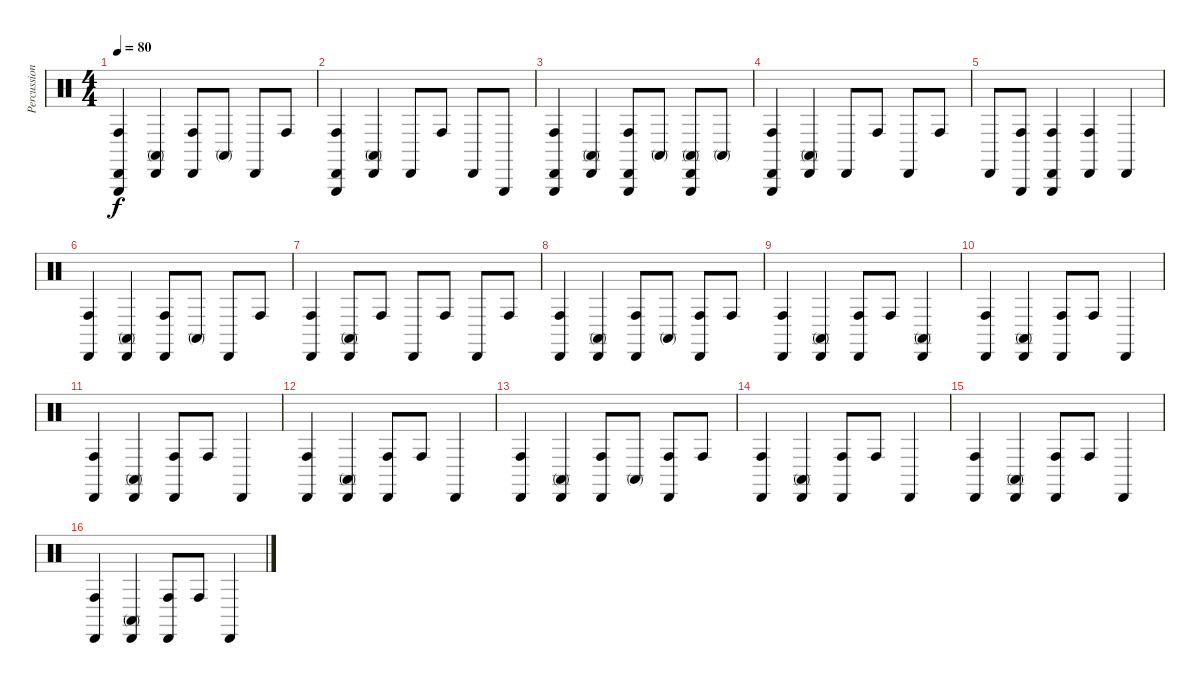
\track ("Percussions" "Percussion") {instrument percussion}
\staff {score}
\articulation defaults
\ts (4 4)
\tempo 80
\clef neutral
\ks c
("Cabasa (hit)" "Triangle (hit)" "Conga high (hit)").4{dy f} ("Cabasa (hit)" "Conga high (mute)").4 ("Cabasa (hit)" "Conga high (hit)").8 "Conga high (mute)".8 "Cabasa (hit)".8 "Conga high (hit)".8 |
("Cabasa (hit)" "Triangle (hit)" "Conga high (hit)").4 ("Cabasa (hit)" "Conga high (mute)").4 "Cabasa (hit)".8 "Conga high (hit)".8 "Cabasa (hit)".8 "Triangle (hit)".8 |
("Cabasa (hit)" "Triangle (hit)" "Conga high (hit)").4 ("Cabasa (hit)" "Conga high (mute)").4 ("Cabasa (hit)" "Triangle (hit)" "Conga high (hit)").8 "Conga high (mute)".8 ("Cabasa (hit)" "Triangle (hit)" "Conga high (mute)").8 "Conga high (mute)".8 |
("Cabasa (hit)" "Triangle (hit)" "Conga high (hit)").4 ("Cabasa (hit)" "Conga high (mute)").4 "Cabasa (hit)".8 "Conga high (hit)".8 "Cabasa (hit)".8 "Conga high (hit)".8 |
"Cabasa (hit)".8 ("Triangle (hit)" "Conga high (hit)").8 ("Cabasa (hit)" "Triangle (hit)" "Conga high (hit)").4 ("Cabasa (hit)" "Conga high (hit)").4 "Cabasa (hit)".4 |
("Cabasa (hit)" "Conga high (hit)").4 ("Cabasa (hit)" "Conga high (mute)").4 ("Cabasa (hit)" "Conga high (hit)").8 "Conga high (mute)".8 "Cabasa (hit)".8 "Conga high (hit)".8 |
("Cabasa (hit)" "Conga high (hit)").4 ("Cabasa (hit)" "Conga high (mute)").8 "Conga high (hit)".8 "Cabasa (hit)".8 "Conga high (hit)".8 "Cabasa (hit)".8 "Conga high (hit)".8 |
("Cabasa (hit)" "Conga high (hit)").4 ("Cabasa (hit)" "Conga high (mute)").4 ("Cabasa (hit)" "Conga high (hit)").8 "Conga high (mute)".8 ("Cabasa (hit)" "Conga high (hit)").8 "Conga high (hit)".8 |
("Cabasa (hit)" "Conga high (hit)").4 ("Cabasa (hit)" "Conga high (mute)").4 ("Cabasa (hit)" "Conga high (hit)").8 "Conga high (hit)".8 ("Cabasa (hit)" "Conga high (mute)").4 |
("Cabasa (hit)" "Conga high (hit)").4 ("Cabasa (hit)" "Conga high (mute)").4 ("Cabasa (hit)" "Conga high (hit)").8 "Conga high (hit)".8 "Cabasa (hit)".4 |
("Cabasa (hit)" "Conga high (hit)").4 ("Cabasa (hit)" "Conga high (mute)").4 ("Cabasa (hit)" "Conga high (hit)").8 "Conga high (hit)".8 "Cabasa (hit)".4 |
("Cabasa (hit)" "Conga high (hit)").4 ("Cabasa (hit)" "Conga high (mute)").4 ("Cabasa (hit)" "Conga high (hit)").8 "Conga high (hit)".8 "Cabasa (hit)".4 |
("Cabasa (hit)" "Conga high (hit)").4 ("Cabasa (hit)" "Conga high (mute)").4 ("Cabasa (hit)" "Conga high (hit)").8 "Conga high (mute)".8 ("Cabasa (hit)" "Conga high (hit)").8 "Conga high (hit)".8 |
("Cabasa (hit)" "Conga high (hit)").4 ("Cabasa (hit)" "Conga high (mute)").4 ("Cabasa (hit)" "Conga high (hit)").8 "Conga high (hit)".8 "Cabasa (hit)".4 |
("Cabasa (hit)" "Conga high (hit)").4 ("Cabasa (hit)" "Conga high (mute)").4 ("Cabasa (hit)" "Conga high (hit)").8 "Conga high (hit)".8 "Cabasa (hit)".4 |
("Cabasa (hit)" "Conga high (hit)").4 ("Cabasa (hit)" "Conga high (mute)").4 ("Cabasa (hit)" "Conga high (hit)").8 "Conga high (hit)".8 "Cabasa (hit)".4
